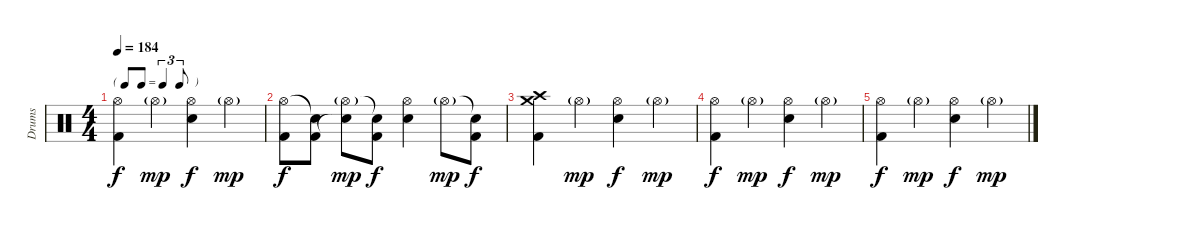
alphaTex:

\track ("Drums" "Drums") {instrument percussion}
\staff {score}
\articulation defaults
\ts (4 4)
\tf triplet8th
\tempo 184
\clef neutral
\ks c
("Hi-Hat (open)" "Kick (hit) 2").4{dy f} "Hi-Hat (open)"{g}.4{dy mp} ("Hi-Hat (open)" "Electric Snare (hit)").4{dy f} "Hi-Hat (open)"{g}.4{dy mp} |
("Hi-Hat (open)" "Kick (hit) 2").8{dy f volume 0} ("Snare (hit)"{t} "Kick (hit) 2").8 ("Hi-Hat (open)"{g} "Snare (hit)"{t}).8{dy mp} ("Snare (hit)"{t} "Kick (hit) 2").8{dy f} ("Hi-Hat (open)" "Electric Snare (hit)").4 "Hi-Hat (open)"{g}.8{dy mp} ("Snare (hit)"{t} "Kick (hit) 2").8{dy f} |
("Crash high (hit)" "Crash medium (hit)" "Kick (hit) 2").4 "Hi-Hat (open)"{g}.4{dy mp} ("Hi-Hat (open)" "Electric Snare (hit)").4{dy f} "Hi-Hat (open)"{g}.4{dy mp} |
("Hi-Hat (open)" "Kick (hit) 2").4{dy f} "Hi-Hat (open)"{g}.4{dy mp} ("Hi-Hat (open)" "Electric Snare (hit)").4{dy f} "Hi-Hat (open)"{g}.4{dy mp} |
("Hi-Hat (open)" "Kick (hit) 2").4{dy f} "Hi-Hat (open)"{g}.4{dy mp} ("Hi-Hat (open)" "Electric Snare (hit)").4{dy f} "Hi-Hat (open)"{g}.4{dy mp}
